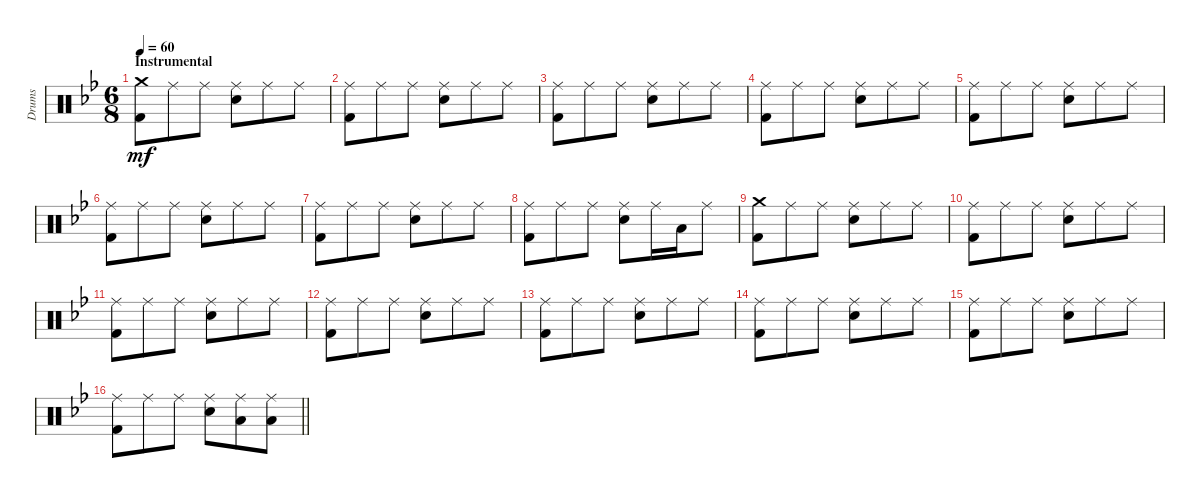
\track ("Drums" "Drums") {instrument percussion}
\staff {score}
\articulation defaults
\ts (6 8)
\section ("" "Instrumental")
\tempo 60
\clef neutral
\ks bb
("Crash medium (hit)" "Kick (hit) 2").8{dy mf} "Ride (middle)".8 "Ride (middle)".8 ("Ride (middle)" "Electric Snare (hit)").8 "Ride (middle)".8 "Ride (middle)".8 |
("Ride (middle)" "Kick (hit) 2").8 "Ride (middle)".8 "Ride (middle)".8 ("Ride (middle)" "Electric Snare (hit)").8 "Ride (middle)".8 "Ride (middle)".8 |
("Ride (middle)" "Kick (hit) 2").8 "Ride (middle)".8 "Ride (middle)".8 ("Ride (middle)" "Electric Snare (hit)").8 "Ride (middle)".8 "Ride (middle)".8 |
("Ride (middle)" "Kick (hit) 2").8 "Ride (middle)".8 "Ride (middle)".8 ("Ride (middle)" "Electric Snare (hit)").8 "Ride (middle)".8 "Ride (middle)".8 |
("Ride (middle)" "Kick (hit) 2").8 "Ride (middle)".8 "Ride (middle)".8 ("Ride (middle)" "Electric Snare (hit)").8 "Ride (middle)".8 "Ride (middle)".8 |
("Ride (middle)" "Kick (hit) 2").8 "Ride (middle)".8 "Ride (middle)".8 ("Ride (middle)" "Electric Snare (hit)").8 "Ride (middle)".8 "Ride (middle)".8 |
("Ride (middle)" "Kick (hit) 2").8 "Ride (middle)".8 "Ride (middle)".8 ("Ride (middle)" "Electric Snare (hit)").8 "Ride (middle)".8 "Ride (middle)".8 |
("Ride (middle)" "Kick (hit) 2").8 "Ride (middle)".8 "Ride (middle)".8 ("Ride (middle)" "Electric Snare (hit)").8 "Ride (middle)".16 "Low Tom (hit)".16 "Ride (middle)".8 |
("Crash medium (hit)" "Kick (hit) 2").8 "Ride (middle)".8 "Ride (middle)".8 ("Ride (middle)" "Electric Snare (hit)").8 "Ride (middle)".8 "Ride (middle)".8 |
("Ride (middle)" "Kick (hit) 2").8 "Ride (middle)".8 "Ride (middle)".8 ("Ride (middle)" "Electric Snare (hit)").8 "Ride (middle)".8 "Ride (middle)".8 |
("Ride (middle)" "Kick (hit) 2").8 "Ride (middle)".8 "Ride (middle)".8 ("Ride (middle)" "Electric Snare (hit)").8 "Ride (middle)".8 "Ride (middle)".8 |
("Ride (middle)" "Kick (hit) 2").8 "Ride (middle)".8 "Ride (middle)".8 ("Ride (middle)" "Electric Snare (hit)").8 "Ride (middle)".8 "Ride (middle)".8 |
("Ride (middle)" "Kick (hit) 2").8 "Ride (middle)".8 "Ride (middle)".8 ("Ride (middle)" "Electric Snare (hit)").8 "Ride (middle)".8 "Ride (middle)".8 |
("Ride (middle)" "Kick (hit) 2").8 "Ride (middle)".8 "Ride (middle)".8 ("Ride (middle)" "Electric Snare (hit)").8 "Ride (middle)".8 "Ride (middle)".8 |
("Ride (middle)" "Kick (hit) 2").8 "Ride (middle)".8 "Ride (middle)".8 ("Ride (middle)" "Electric Snare (hit)").8 "Ride (middle)".8 "Ride (middle)".8 |
\barLineRight lightlight
("Ride (middle)" "Kick (hit) 2").8 "Ride (middle)".8 "Ride (middle)".8 ("Ride (middle)" "Electric Snare (hit)").8 ("Ride (middle)" "Low Tom (hit)").8 ("Ride (middle)" "Low Tom (hit)").8
